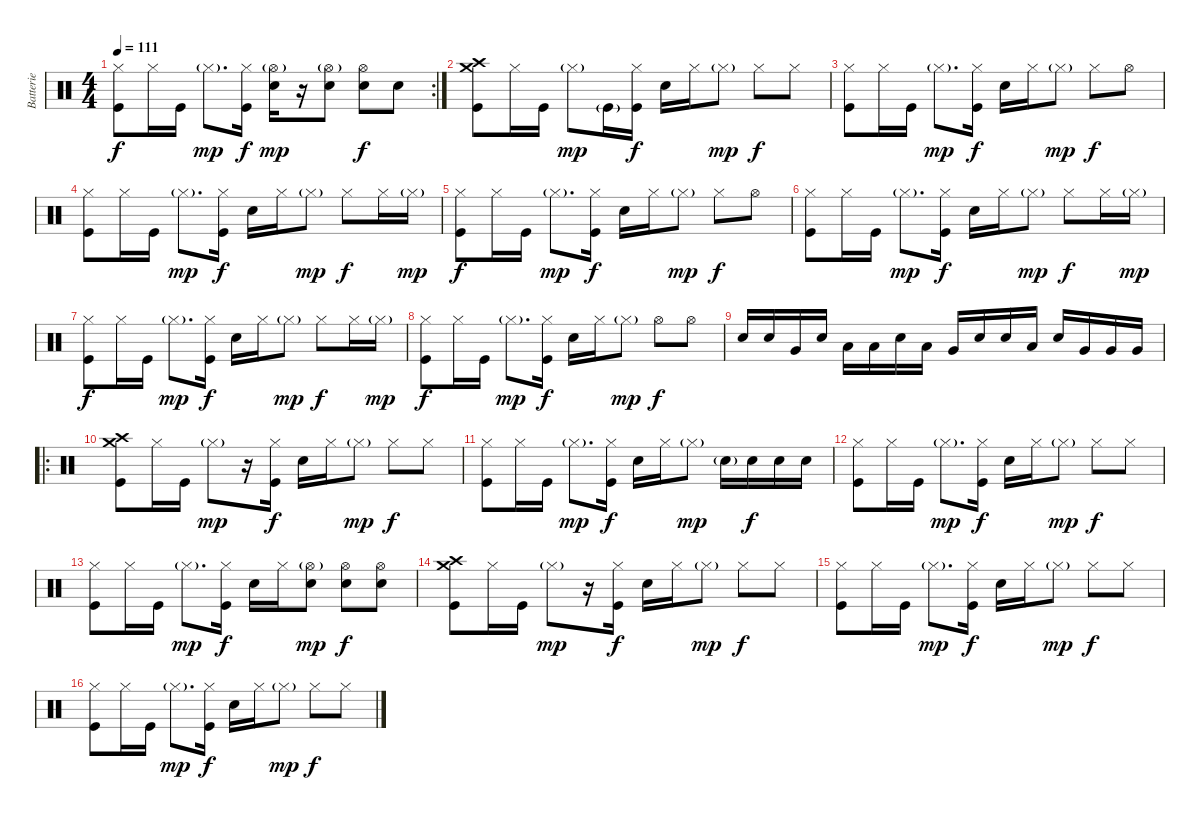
\track ("Batterie" "Batterie") {instrument percussion}
\staff {score}
\articulation defaults
\rc 2
\ts (4 4)
\tempo 111
\clef neutral
\ks c
("Hi-Hat (closed)" "Kick (hit)").8{dy f} "Hi-Hat (closed)".16 "Kick (hit)".16 "Hi-Hat (closed)"{g}.8{d dy mp} ("Hi-Hat (closed)" "Kick (hit)").16{dy f} ("Hi-Hat (open)"{g} "Electric Snare (hit)").16{dy mp} r.16 ("Hi-Hat (open)"{g} "Electric Snare (hit)").8 ("Hi-Hat (open)" "Electric Snare (hit)").8{dy f} "Electric Snare (hit)".8 |
("Crash high (hit)" "Crash medium (hit)" "Kick (hit)").8 "Hi-Hat (closed)".16 "Kick (hit)".16 "Hi-Hat (closed)"{g}.8{dy mp} "Kick (hit)"{g}.16 ("Hi-Hat (closed)" "Kick (hit)").16{dy f} "Electric Snare (hit)".16 "Hi-Hat (closed)".16 "Hi-Hat (closed)"{g}.8{dy mp} "Hi-Hat (closed)".8{dy f} "Hi-Hat (closed)".8 |
("Hi-Hat (closed)" "Kick (hit)").8 "Hi-Hat (closed)".16 "Kick (hit)".16 "Hi-Hat (closed)"{g}.8{d dy mp} ("Hi-Hat (closed)" "Kick (hit)").16{dy f} "Electric Snare (hit)".16 "Hi-Hat (closed)".16 "Hi-Hat (closed)"{g}.8{dy mp} "Hi-Hat (closed)".8{dy f} "Hi-Hat (open)".8 |
("Hi-Hat (closed)" "Kick (hit)").8 "Hi-Hat (closed)".16 "Kick (hit)".16 "Hi-Hat (closed)"{g}.8{d dy mp} ("Hi-Hat (closed)" "Kick (hit)").16{dy f} "Electric Snare (hit)".16 "Hi-Hat (closed)".16 "Hi-Hat (closed)"{g}.8{dy mp} "Hi-Hat (closed)".8{dy f} "Hi-Hat (closed)".16 "Hi-Hat (closed)"{g}.16{dy mp} |
("Hi-Hat (closed)" "Kick (hit)").8{dy f} "Hi-Hat (closed)".16 "Kick (hit)".16 "Hi-Hat (closed)"{g}.8{d dy mp} ("Hi-Hat (closed)" "Kick (hit)").16{dy f} "Electric Snare (hit)".16 "Hi-Hat (closed)".16 "Hi-Hat (closed)"{g}.8{dy mp} "Hi-Hat (closed)".8{dy f} "Hi-Hat (open)".8 |
("Hi-Hat (closed)" "Kick (hit)").8 "Hi-Hat (closed)".16 "Kick (hit)".16 "Hi-Hat (closed)"{g}.8{d dy mp} ("Hi-Hat (closed)" "Kick (hit)").16{dy f} "Electric Snare (hit)".16 "Hi-Hat (closed)".16 "Hi-Hat (closed)"{g}.8{dy mp} "Hi-Hat (closed)".8{dy f} "Hi-Hat (closed)".16 "Hi-Hat (closed)"{g}.16{dy mp} |
("Hi-Hat (closed)" "Kick (hit)").8{dy f} "Hi-Hat (closed)".16 "Kick (hit)".16 "Hi-Hat (closed)"{g}.8{d dy mp} ("Hi-Hat (closed)" "Kick (hit)").16{dy f} "Electric Snare (hit)".16 "Hi-Hat (closed)".16 "Hi-Hat (closed)"{g}.8{dy mp} "Hi-Hat (closed)".8{dy f} "Hi-Hat (closed)".16 "Hi-Hat (closed)"{g}.16{dy mp} |
("Hi-Hat (closed)" "Kick (hit)").8{dy f} "Hi-Hat (closed)".16 "Kick (hit)".16 "Hi-Hat (closed)"{g}.8{d dy mp} ("Hi-Hat (closed)" "Kick (hit)").16{dy f} "Electric Snare (hit)".16 "Hi-Hat (closed)".16 "Hi-Hat (closed)"{g}.8{dy mp} "Hi-Hat (open)".8{dy f} "Hi-Hat (open)".8 |
"Electric Snare (hit)".16 "Electric Snare (hit)".16 "Very Low Tom (hit)".16 "Electric Snare (hit)".16 "Low Tom (hit)".16 "Low Floor Tom (hit)".16 "Electric Snare (hit)".16 "Low Tom (hit)".16 "Very Low Tom (hit)".16 "Electric Snare (hit)".16 "Electric Snare (hit)".16 "Low Floor Tom (hit)".16 "Electric Snare (hit)".16 "Very Low Tom (hit)".16 "Very Low Tom (hit)".16 "Very Low Tom (hit)".16 |
\ro
("Crash high (hit)" "Crash medium (hit)" "Kick (hit)").8 "Hi-Hat (closed)".16 "Kick (hit)".16 "Hi-Hat (closed)"{g}.8{dy mp} r.16 ("Hi-Hat (closed)" "Kick (hit)").16{dy f} "Electric Snare (hit)".16 "Hi-Hat (closed)".16 "Hi-Hat (closed)"{g}.8{dy mp} "Hi-Hat (closed)".8{dy f} "Hi-Hat (closed)".8 |
("Hi-Hat (closed)" "Kick (hit)").8 "Hi-Hat (closed)".16 "Kick (hit)".16 "Hi-Hat (closed)"{g}.8{d dy mp} ("Hi-Hat (closed)" "Kick (hit)").16{dy f} "Electric Snare (hit)".16 "Hi-Hat (closed)".16 "Hi-Hat (closed)"{g}.8{dy mp} "Electric Snare (hit)"{g}.16 "Electric Snare (hit)".16{dy f} "Electric Snare (hit)".16 "Electric Snare (hit)".16 |
("Hi-Hat (closed)" "Kick (hit)").8 "Hi-Hat (closed)".16 "Kick (hit)".16 "Hi-Hat (closed)"{g}.8{d dy mp} ("Hi-Hat (closed)" "Kick (hit)").16{dy f} "Electric Snare (hit)".16 "Hi-Hat (closed)".16 "Hi-Hat (closed)"{g}.8{dy mp} "Hi-Hat (closed)".8{dy f} "Hi-Hat (closed)".8 |
("Hi-Hat (closed)" "Kick (hit)").8 "Hi-Hat (closed)".16 "Kick (hit)".16 "Hi-Hat (closed)"{g}.8{d dy mp} ("Hi-Hat (closed)" "Kick (hit)").16{dy f} "Electric Snare (hit)".16 "Hi-Hat (closed)".16 ("Hi-Hat (open)"{g} "Electric Snare (hit)").8{dy mp} ("Hi-Hat (open)" "Electric Snare (hit)").8{dy f} ("Hi-Hat (open)" "Electric Snare (hit)").8 |
("Crash high (hit)" "Crash medium (hit)" "Kick (hit)").8 "Hi-Hat (closed)".16 "Kick (hit)".16 "Hi-Hat (closed)"{g}.8{dy mp} r.16 ("Hi-Hat (closed)" "Kick (hit)").16{dy f} "Electric Snare (hit)".16 "Hi-Hat (closed)".16 "Hi-Hat (closed)"{g}.8{dy mp} "Hi-Hat (closed)".8{dy f} "Hi-Hat (closed)".8 |
("Hi-Hat (closed)" "Kick (hit)").8 "Hi-Hat (closed)".16 "Kick (hit)".16 "Hi-Hat (closed)"{g}.8{d dy mp} ("Hi-Hat (closed)" "Kick (hit)").16{dy f} "Electric Snare (hit)".16 "Hi-Hat (closed)".16 "Hi-Hat (closed)"{g}.8{dy mp} "Hi-Hat (closed)".8{dy f} "Hi-Hat (closed)".8 |
("Hi-Hat (closed)" "Kick (hit)").8 "Hi-Hat (closed)".16 "Kick (hit)".16 "Hi-Hat (closed)"{g}.8{d dy mp} ("Hi-Hat (closed)" "Kick (hit)").16{dy f} "Electric Snare (hit)".16 "Hi-Hat (closed)".16 "Hi-Hat (closed)"{g}.8{dy mp} "Hi-Hat (closed)".8{dy f} "Hi-Hat (closed)".8
